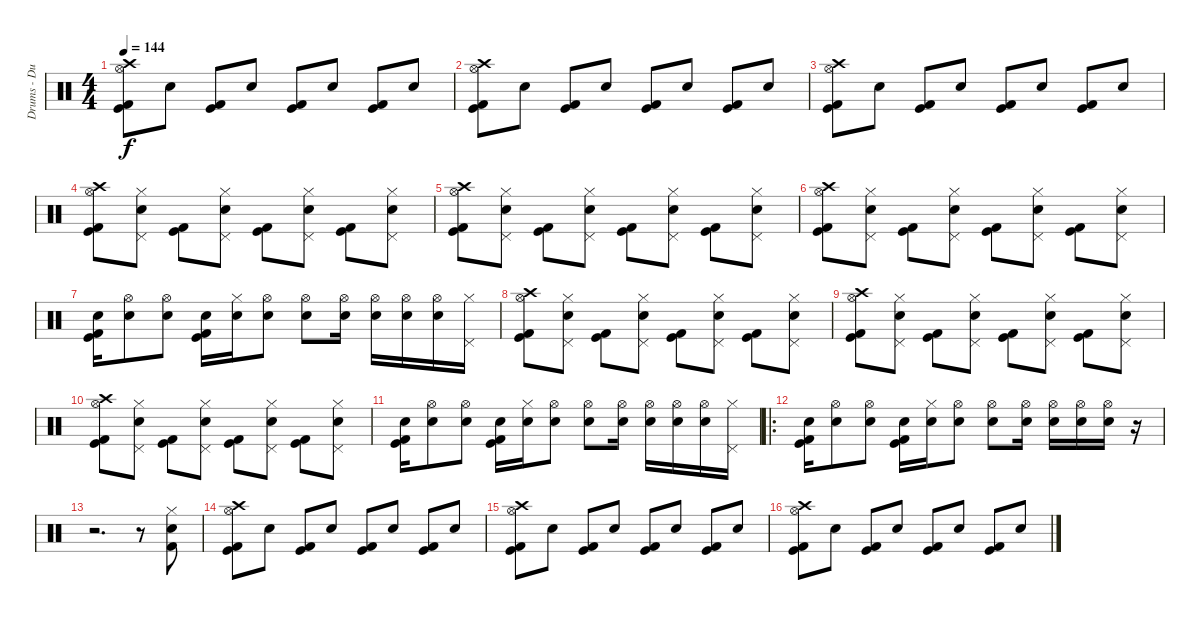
\track ("Drums - Duncan Scott" "Drums - Du") {instrument percussion}
\staff {score}
\articulation defaults
\ts (4 4)
\tempo 144
\clef neutral
\ks c
("Crash high (hit)" "Hi-Hat (open)" "Kick (hit)" "Kick (hit) 2").8{dy f} "Electric Snare (hit)".8 ("Kick (hit)" "Kick (hit) 2").8 "Electric Snare (hit)".8 ("Kick (hit)" "Kick (hit) 2").8 "Electric Snare (hit)".8 ("Kick (hit)" "Kick (hit) 2").8 "Electric Snare (hit)".8 |
("Crash high (hit)" "Hi-Hat (open)" "Kick (hit)" "Kick (hit) 2").8 "Electric Snare (hit)".8 ("Kick (hit)" "Kick (hit) 2").8 "Electric Snare (hit)".8 ("Kick (hit)" "Kick (hit) 2").8 "Electric Snare (hit)".8 ("Kick (hit)" "Kick (hit) 2").8 "Electric Snare (hit)".8 |
("Crash high (hit)" "Hi-Hat (open)" "Kick (hit)" "Kick (hit) 2").8 "Electric Snare (hit)".8 ("Kick (hit)" "Kick (hit) 2").8 "Electric Snare (hit)".8 ("Kick (hit)" "Kick (hit) 2").8 "Electric Snare (hit)".8 ("Kick (hit)" "Kick (hit) 2").8 "Electric Snare (hit)".8 |
("Crash high (hit)" "Hi-Hat (open)" "Kick (hit)" "Kick (hit) 2").8 ("Pedal Hi-Hat (hit)" "Hi-Hat (closed)" "Electric Snare (hit)").8 ("Kick (hit)" "Kick (hit) 2").8 ("Pedal Hi-Hat (hit)" "Hi-Hat (closed)" "Electric Snare (hit)").8 ("Kick (hit)" "Kick (hit) 2").8 ("Pedal Hi-Hat (hit)" "Hi-Hat (closed)" "Electric Snare (hit)").8 ("Kick (hit)" "Kick (hit) 2").8 ("Pedal Hi-Hat (hit)" "Hi-Hat (closed)" "Electric Snare (hit)").8 |
("Crash high (hit)" "Hi-Hat (open)" "Kick (hit)" "Kick (hit) 2").8 ("Pedal Hi-Hat (hit)" "Hi-Hat (closed)" "Electric Snare (hit)").8 ("Kick (hit)" "Kick (hit) 2").8 ("Pedal Hi-Hat (hit)" "Hi-Hat (closed)" "Electric Snare (hit)").8 ("Kick (hit)" "Kick (hit) 2").8 ("Pedal Hi-Hat (hit)" "Hi-Hat (closed)" "Electric Snare (hit)").8 ("Kick (hit)" "Kick (hit) 2").8 ("Pedal Hi-Hat (hit)" "Hi-Hat (closed)" "Electric Snare (hit)").8 |
("Crash high (hit)" "Hi-Hat (open)" "Kick (hit)" "Kick (hit) 2").8 ("Pedal Hi-Hat (hit)" "Hi-Hat (closed)" "Electric Snare (hit)").8 ("Kick (hit)" "Kick (hit) 2").8 ("Pedal Hi-Hat (hit)" "Hi-Hat (closed)" "Electric Snare (hit)").8 ("Kick (hit)" "Kick (hit) 2").8 ("Pedal Hi-Hat (hit)" "Hi-Hat (closed)" "Electric Snare (hit)").8 ("Kick (hit)" "Kick (hit) 2").8 ("Pedal Hi-Hat (hit)" "Hi-Hat (closed)" "Electric Snare (hit)").8 |
("Electric Snare (hit)" "Kick (hit) 2" "Kick (hit)").16 ("Electric Snare (hit)" "Hi-Hat (open)").8 ("Electric Snare (hit)" "Hi-Hat (open)").8 ("Electric Snare (hit)" "Kick (hit) 2" "Kick (hit)").16 ("Electric Snare (hit)" "Hi-Hat (closed)").16 ("Electric Snare (hit)" "Hi-Hat (open)").8 ("Electric Snare (hit)" "Hi-Hat (open)").8 ("Electric Snare (hit)" "Hi-Hat (open)").16 ("Electric Snare (hit)" "Hi-Hat (open)").16 ("Electric Snare (hit)" "Hi-Hat (open)").16 ("Electric Snare (hit)" "Hi-Hat (open)").16 ("Hi-Hat (closed)" "Pedal Hi-Hat (hit)").16 |
("Crash high (hit)" "Hi-Hat (open)" "Kick (hit)" "Kick (hit) 2").8 ("Pedal Hi-Hat (hit)" "Hi-Hat (closed)" "Electric Snare (hit)").8 ("Kick (hit)" "Kick (hit) 2").8 ("Pedal Hi-Hat (hit)" "Hi-Hat (closed)" "Electric Snare (hit)").8 ("Kick (hit)" "Kick (hit) 2").8 ("Pedal Hi-Hat (hit)" "Hi-Hat (closed)" "Electric Snare (hit)").8 ("Kick (hit)" "Kick (hit) 2").8 ("Pedal Hi-Hat (hit)" "Hi-Hat (closed)" "Electric Snare (hit)").8 |
("Crash high (hit)" "Hi-Hat (open)" "Kick (hit)" "Kick (hit) 2").8 ("Pedal Hi-Hat (hit)" "Hi-Hat (closed)" "Electric Snare (hit)").8 ("Kick (hit)" "Kick (hit) 2").8 ("Pedal Hi-Hat (hit)" "Hi-Hat (closed)" "Electric Snare (hit)").8 ("Kick (hit)" "Kick (hit) 2").8 ("Pedal Hi-Hat (hit)" "Hi-Hat (closed)" "Electric Snare (hit)").8 ("Kick (hit)" "Kick (hit) 2").8 ("Pedal Hi-Hat (hit)" "Hi-Hat (closed)" "Electric Snare (hit)").8 |
("Crash high (hit)" "Hi-Hat (open)" "Kick (hit)" "Kick (hit) 2").8 ("Pedal Hi-Hat (hit)" "Hi-Hat (closed)" "Electric Snare (hit)").8 ("Kick (hit)" "Kick (hit) 2").8 ("Pedal Hi-Hat (hit)" "Hi-Hat (closed)" "Electric Snare (hit)").8 ("Kick (hit)" "Kick (hit) 2").8 ("Pedal Hi-Hat (hit)" "Hi-Hat (closed)" "Electric Snare (hit)").8 ("Kick (hit)" "Kick (hit) 2").8 ("Pedal Hi-Hat (hit)" "Hi-Hat (closed)" "Electric Snare (hit)").8 |
("Electric Snare (hit)" "Kick (hit) 2" "Kick (hit)").16 ("Electric Snare (hit)" "Hi-Hat (open)").8 ("Electric Snare (hit)" "Hi-Hat (open)").8 ("Electric Snare (hit)" "Kick (hit) 2" "Kick (hit)").16 ("Electric Snare (hit)" "Hi-Hat (closed)").16 ("Electric Snare (hit)" "Hi-Hat (open)").8 ("Electric Snare (hit)" "Hi-Hat (open)").8 ("Electric Snare (hit)" "Hi-Hat (open)").16 ("Electric Snare (hit)" "Hi-Hat (open)").16 ("Electric Snare (hit)" "Hi-Hat (open)").16 ("Electric Snare (hit)" "Hi-Hat (open)").16 ("Hi-Hat (closed)" "Pedal Hi-Hat (hit)").16 |
\ro
("Electric Snare (hit)" "Kick (hit) 2" "Kick (hit)").16 ("Electric Snare (hit)" "Hi-Hat (open)").8 ("Electric Snare (hit)" "Hi-Hat (open)").8 ("Electric Snare (hit)" "Kick (hit) 2" "Kick (hit)").16 ("Electric Snare (hit)" "Hi-Hat (closed)").16 ("Electric Snare (hit)" "Hi-Hat (open)").8 ("Electric Snare (hit)" "Hi-Hat (open)").8 ("Electric Snare (hit)" "Hi-Hat (open)").16 ("Electric Snare (hit)" "Hi-Hat (open)").16 ("Electric Snare (hit)" "Hi-Hat (open)").16 ("Electric Snare (hit)" "Hi-Hat (open)").16 r.16 |
r.2{d} r.8 ("Electric Snare (hit)" "Hi-Hat (closed)" "Kick (hit) 2").8 |
("Crash high (hit)" "Hi-Hat (open)" "Kick (hit)" "Kick (hit) 2").8 "Electric Snare (hit)".8 ("Kick (hit)" "Kick (hit) 2").8 "Electric Snare (hit)".8 ("Kick (hit)" "Kick (hit) 2").8 "Electric Snare (hit)".8 ("Kick (hit)" "Kick (hit) 2").8 "Electric Snare (hit)".8 |
("Crash high (hit)" "Hi-Hat (open)" "Kick (hit)" "Kick (hit) 2").8 "Electric Snare (hit)".8 ("Kick (hit)" "Kick (hit) 2").8 "Electric Snare (hit)".8 ("Kick (hit)" "Kick (hit) 2").8 "Electric Snare (hit)".8 ("Kick (hit)" "Kick (hit) 2").8 "Electric Snare (hit)".8 |
("Crash high (hit)" "Hi-Hat (open)" "Kick (hit)" "Kick (hit) 2").8 "Electric Snare (hit)".8 ("Kick (hit)" "Kick (hit) 2").8 "Electric Snare (hit)".8 ("Kick (hit)" "Kick (hit) 2").8 "Electric Snare (hit)".8 ("Kick (hit)" "Kick (hit) 2").8 "Electric Snare (hit)".8
